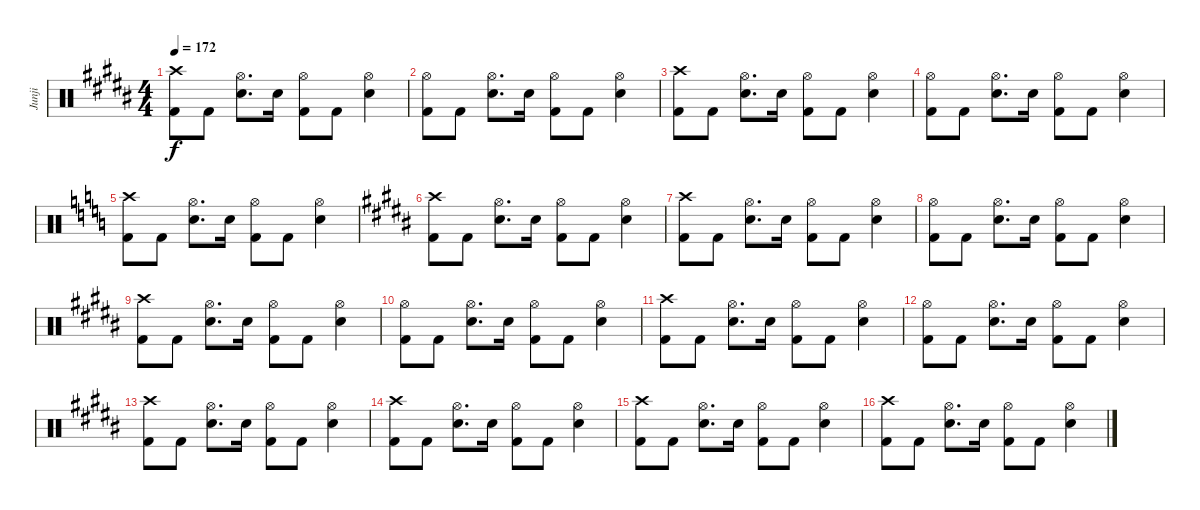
\track ("Junji" "Junji") {instrument percussion}
\staff {score}
\articulation defaults
\ts (4 4)
\tempo 172
\clef neutral
\ks b
("Crash high (hit)" "Kick (hit) 2").8{dy f} "Kick (hit) 2".8 ("Hi-Hat (open)" "Snare (hit) 2").8{d} "Snare (hit) 2".16 ("Hi-Hat (open)" "Kick (hit) 2").8 "Kick (hit) 2".8 ("Hi-Hat (open)" "Snare (hit) 2").4 |
("Hi-Hat (open)" "Kick (hit) 2").8 "Kick (hit) 2".8 ("Hi-Hat (open)" "Snare (hit) 2").8{d} "Snare (hit) 2".16 ("Hi-Hat (open)" "Kick (hit) 2").8 "Kick (hit) 2".8 ("Hi-Hat (open)" "Snare (hit) 2").4 |
("Crash high (hit)" "Kick (hit) 2").8 "Kick (hit) 2".8 ("Hi-Hat (open)" "Snare (hit) 2").8{d} "Snare (hit) 2".16 ("Hi-Hat (open)" "Kick (hit) 2").8 "Kick (hit) 2".8 ("Hi-Hat (open)" "Snare (hit) 2").4 |
("Hi-Hat (open)" "Kick (hit) 2").8 "Kick (hit) 2".8 ("Hi-Hat (open)" "Snare (hit) 2").8{d} "Snare (hit) 2".16 ("Hi-Hat (open)" "Kick (hit) 2").8 "Kick (hit) 2".8 ("Hi-Hat (open)" "Snare (hit) 2").4 |
\ks c
("Crash high (hit)" "Kick (hit) 2").8 "Kick (hit) 2".8 ("Hi-Hat (open)" "Snare (hit) 2").8{d} "Snare (hit) 2".16 ("Hi-Hat (open)" "Kick (hit) 2").8 "Kick (hit) 2".8 ("Hi-Hat (open)" "Snare (hit) 2").4 |
\ks b
("Crash high (hit)" "Kick (hit) 2").8 "Kick (hit) 2".8 ("Hi-Hat (open)" "Snare (hit) 2").8{d} "Snare (hit) 2".16 ("Hi-Hat (open)" "Kick (hit) 2").8 "Kick (hit) 2".8 ("Hi-Hat (open)" "Snare (hit) 2").4 |
("Crash high (hit)" "Kick (hit) 2").8 "Kick (hit) 2".8 ("Hi-Hat (open)" "Snare (hit) 2").8{d} "Snare (hit) 2".16 ("Hi-Hat (open)" "Kick (hit) 2").8 "Kick (hit) 2".8 ("Hi-Hat (open)" "Snare (hit) 2").4 |
("Hi-Hat (open)" "Kick (hit) 2").8 "Kick (hit) 2".8 ("Hi-Hat (open)" "Snare (hit) 2").8{d} "Snare (hit) 2".16 ("Hi-Hat (open)" "Kick (hit) 2").8 "Kick (hit) 2".8 ("Hi-Hat (open)" "Snare (hit) 2").4 |
("Crash high (hit)" "Kick (hit) 2").8 "Kick (hit) 2".8 ("Hi-Hat (open)" "Snare (hit) 2").8{d} "Snare (hit) 2".16 ("Hi-Hat (open)" "Kick (hit) 2").8 "Kick (hit) 2".8 ("Hi-Hat (open)" "Snare (hit) 2").4 |
("Hi-Hat (open)" "Kick (hit) 2").8 "Kick (hit) 2".8 ("Hi-Hat (open)" "Snare (hit) 2").8{d} "Snare (hit) 2".16 ("Hi-Hat (open)" "Kick (hit) 2").8 "Kick (hit) 2".8 ("Hi-Hat (open)" "Snare (hit) 2").4 |
("Crash high (hit)" "Kick (hit) 2").8 "Kick (hit) 2".8 ("Hi-Hat (open)" "Snare (hit) 2").8{d} "Snare (hit) 2".16 ("Hi-Hat (open)" "Kick (hit) 2").8 "Kick (hit) 2".8 ("Hi-Hat (open)" "Snare (hit) 2").4 |
("Hi-Hat (open)" "Kick (hit) 2").8 "Kick (hit) 2".8 ("Hi-Hat (open)" "Snare (hit) 2").8{d} "Snare (hit) 2".16 ("Hi-Hat (open)" "Kick (hit) 2").8 "Kick (hit) 2".8 ("Hi-Hat (open)" "Snare (hit) 2").4 |
("Crash high (hit)" "Kick (hit) 2").8 "Kick (hit) 2".8 ("Hi-Hat (open)" "Snare (hit) 2").8{d} "Snare (hit) 2".16 ("Hi-Hat (open)" "Kick (hit) 2").8 "Kick (hit) 2".8 ("Hi-Hat (open)" "Snare (hit) 2").4 |
("Crash high (hit)" "Kick (hit) 2").8 "Kick (hit) 2".8 ("Hi-Hat (open)" "Snare (hit) 2").8{d} "Snare (hit) 2".16 ("Hi-Hat (open)" "Kick (hit) 2").8 "Kick (hit) 2".8 ("Hi-Hat (open)" "Snare (hit) 2").4 |
("Crash high (hit)" "Kick (hit) 2").8 "Kick (hit) 2".8 ("Hi-Hat (open)" "Snare (hit) 2").8{d} "Snare (hit) 2".16 ("Hi-Hat (open)" "Kick (hit) 2").8 "Kick (hit) 2".8 ("Hi-Hat (open)" "Snare (hit) 2").4 |
("Crash high (hit)" "Kick (hit) 2").8 "Kick (hit) 2".8 ("Hi-Hat (open)" "Snare (hit) 2").8{d} "Snare (hit) 2".16 ("Hi-Hat (open)" "Kick (hit) 2").8 "Kick (hit) 2".8 ("Hi-Hat (open)" "Snare (hit) 2").4
